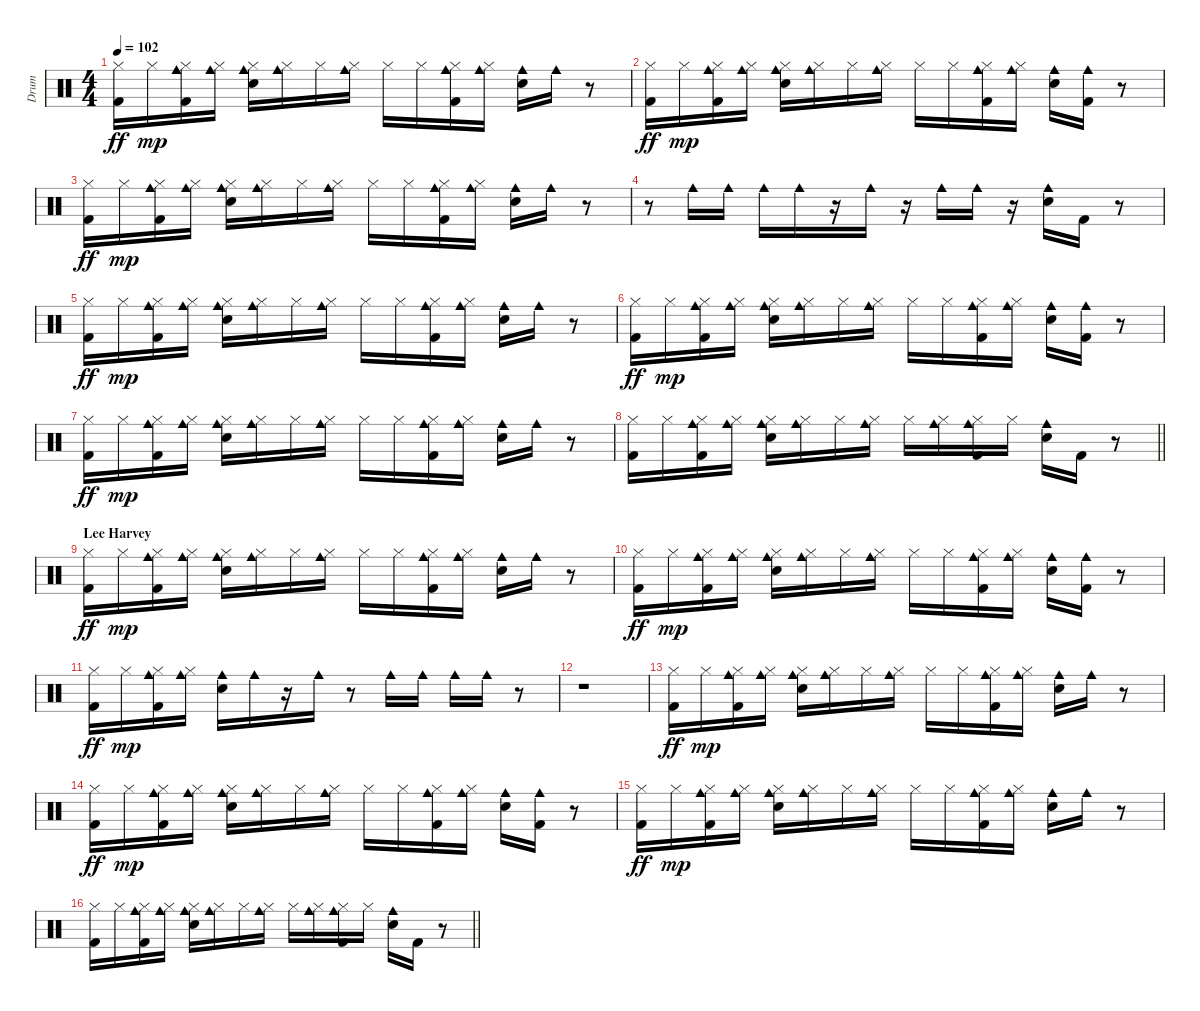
\track ("Drum" "Drum") {instrument percussion}
\staff {score}
\articulation defaults
\ts (4 4)
\tempo 102
\clef neutral
\ks c
("Hi-Hat (closed)" "Kick (hit) 2").16{dy ff volume 12} "Hi-Hat (closed)".16{dy mp} ("Hi-Hat (closed)" "Kick (hit) 2" "Cowbell medium (hit)").16 ("Hi-Hat (closed)" "Cowbell medium (hit)").16 ("Electric Snare (hit)" "Hi-Hat (closed)" "Cowbell medium (hit)").16 ("Hi-Hat (closed)" "Cowbell medium (hit)").16 "Hi-Hat (closed)".16 ("Hi-Hat (closed)" "Cowbell medium (hit)").16 "Hi-Hat (closed)".16 "Hi-Hat (closed)".16 ("Hi-Hat (closed)" "Kick (hit) 2" "Cowbell medium (hit)").16 ("Hi-Hat (closed)" "Cowbell medium (hit)").16 ("Electric Snare (hit)" "Cowbell medium (hit)").16 "Cowbell medium (hit)".16 r.8 |
("Hi-Hat (closed)" "Kick (hit) 2").16{dy ff volume 12} "Hi-Hat (closed)".16{dy mp} ("Hi-Hat (closed)" "Kick (hit) 2" "Cowbell medium (hit)").16 ("Hi-Hat (closed)" "Cowbell medium (hit)").16 ("Electric Snare (hit)" "Hi-Hat (closed)" "Cowbell medium (hit)").16 ("Hi-Hat (closed)" "Cowbell medium (hit)").16 "Hi-Hat (closed)".16 ("Hi-Hat (closed)" "Cowbell medium (hit)").16 "Hi-Hat (closed)".16 "Hi-Hat (closed)".16 ("Hi-Hat (closed)" "Kick (hit) 2" "Cowbell medium (hit)").16 ("Hi-Hat (closed)" "Cowbell medium (hit)").16 ("Electric Snare (hit)" "Cowbell medium (hit)").16 ("Cowbell medium (hit)" "Kick (hit) 2").16 r.8 |
("Hi-Hat (closed)" "Kick (hit) 2").16{dy ff volume 12} "Hi-Hat (closed)".16{dy mp} ("Hi-Hat (closed)" "Kick (hit) 2" "Cowbell medium (hit)").16 ("Hi-Hat (closed)" "Cowbell medium (hit)").16 ("Electric Snare (hit)" "Hi-Hat (closed)" "Cowbell medium (hit)").16 ("Hi-Hat (closed)" "Cowbell medium (hit)").16 "Hi-Hat (closed)".16 ("Hi-Hat (closed)" "Cowbell medium (hit)").16 "Hi-Hat (closed)".16 "Hi-Hat (closed)".16 ("Hi-Hat (closed)" "Kick (hit) 2" "Cowbell medium (hit)").16 ("Hi-Hat (closed)" "Cowbell medium (hit)").16 ("Electric Snare (hit)" "Cowbell medium (hit)").16 "Cowbell medium (hit)".16 r.8 |
r.8 "Cowbell medium (hit)".16{volume 12} "Cowbell medium (hit)".16 "Cowbell medium (hit)".16 "Cowbell medium (hit)".16 r.16 "Cowbell medium (hit)".16 r.16 "Cowbell medium (hit)".16 "Cowbell medium (hit)".16 r.16 ("Electric Snare (hit)" "Cowbell medium (hit)").16 "Kick (hit) 2".16 r.8 |
("Hi-Hat (closed)" "Kick (hit) 2").16{dy ff volume 12} "Hi-Hat (closed)".16{dy mp} ("Hi-Hat (closed)" "Kick (hit) 2" "Cowbell medium (hit)").16 ("Hi-Hat (closed)" "Cowbell medium (hit)").16 ("Electric Snare (hit)" "Hi-Hat (closed)" "Cowbell medium (hit)").16 ("Hi-Hat (closed)" "Cowbell medium (hit)").16 "Hi-Hat (closed)".16 ("Hi-Hat (closed)" "Cowbell medium (hit)").16 "Hi-Hat (closed)".16 "Hi-Hat (closed)".16 ("Hi-Hat (closed)" "Kick (hit) 2" "Cowbell medium (hit)").16 ("Hi-Hat (closed)" "Cowbell medium (hit)").16 ("Electric Snare (hit)" "Cowbell medium (hit)").16 "Cowbell medium (hit)".16 r.8 |
("Hi-Hat (closed)" "Kick (hit) 2").16{dy ff volume 12} "Hi-Hat (closed)".16{dy mp} ("Hi-Hat (closed)" "Kick (hit) 2" "Cowbell medium (hit)").16 ("Hi-Hat (closed)" "Cowbell medium (hit)").16 ("Electric Snare (hit)" "Hi-Hat (closed)" "Cowbell medium (hit)").16 ("Hi-Hat (closed)" "Cowbell medium (hit)").16 "Hi-Hat (closed)".16 ("Hi-Hat (closed)" "Cowbell medium (hit)").16 "Hi-Hat (closed)".16 "Hi-Hat (closed)".16 ("Hi-Hat (closed)" "Kick (hit) 2" "Cowbell medium (hit)").16 ("Hi-Hat (closed)" "Cowbell medium (hit)").16 ("Electric Snare (hit)" "Cowbell medium (hit)").16 ("Cowbell medium (hit)" "Kick (hit) 2").16 r.8 |
("Hi-Hat (closed)" "Kick (hit) 2").16{dy ff volume 12} "Hi-Hat (closed)".16{dy mp} ("Hi-Hat (closed)" "Kick (hit) 2" "Cowbell medium (hit)").16 ("Hi-Hat (closed)" "Cowbell medium (hit)").16 ("Electric Snare (hit)" "Hi-Hat (closed)" "Cowbell medium (hit)").16 ("Hi-Hat (closed)" "Cowbell medium (hit)").16 "Hi-Hat (closed)".16 ("Hi-Hat (closed)" "Cowbell medium (hit)").16 "Hi-Hat (closed)".16 "Hi-Hat (closed)".16 ("Hi-Hat (closed)" "Kick (hit) 2" "Cowbell medium (hit)").16 ("Hi-Hat (closed)" "Cowbell medium (hit)").16 ("Electric Snare (hit)" "Cowbell medium (hit)").16 "Cowbell medium (hit)".16 r.8 |
\barLineRight lightlight
("Kick (hit) 2" "Hi-Hat (closed)").16{volume 12} "Hi-Hat (closed)".16 ("Kick (hit) 2" "Hi-Hat (closed)" "Cowbell medium (hit)").16 ("Hi-Hat (closed)" "Cowbell medium (hit)").16 ("Electric Snare (hit)" "Hi-Hat (closed)" "Cowbell medium (hit)").16 ("Hi-Hat (closed)" "Cowbell medium (hit)").16 "Hi-Hat (closed)".16 ("Hi-Hat (closed)" "Cowbell medium (hit)").16 "Hi-Hat (closed)".16 ("Hi-Hat (closed)" "Cowbell medium (hit)").16 ("Hi-Hat (closed)" "Kick (hit) 2" "Cowbell medium (hit)").16 "Hi-Hat (closed)".16 ("Electric Snare (hit)" "Cowbell medium (hit)").16 "Kick (hit) 2".16 r.8 |
\section ("" "Lee Harvey")
("Hi-Hat (closed)" "Kick (hit) 2").16{dy ff volume 12} "Hi-Hat (closed)".16{dy mp} ("Hi-Hat (closed)" "Kick (hit) 2" "Cowbell medium (hit)").16 ("Hi-Hat (closed)" "Cowbell medium (hit)").16 ("Electric Snare (hit)" "Hi-Hat (closed)" "Cowbell medium (hit)").16 ("Hi-Hat (closed)" "Cowbell medium (hit)").16 "Hi-Hat (closed)".16 ("Hi-Hat (closed)" "Cowbell medium (hit)").16 "Hi-Hat (closed)".16 "Hi-Hat (closed)".16 ("Hi-Hat (closed)" "Kick (hit) 2" "Cowbell medium (hit)").16 ("Hi-Hat (closed)" "Cowbell medium (hit)").16 ("Electric Snare (hit)" "Cowbell medium (hit)").16 "Cowbell medium (hit)".16 r.8 |
("Hi-Hat (closed)" "Kick (hit) 2").16{dy ff volume 12} "Hi-Hat (closed)".16{dy mp} ("Hi-Hat (closed)" "Kick (hit) 2" "Cowbell medium (hit)").16 ("Hi-Hat (closed)" "Cowbell medium (hit)").16 ("Electric Snare (hit)" "Hi-Hat (closed)" "Cowbell medium (hit)").16 ("Hi-Hat (closed)" "Cowbell medium (hit)").16 "Hi-Hat (closed)".16 ("Hi-Hat (closed)" "Cowbell medium (hit)").16 "Hi-Hat (closed)".16 "Hi-Hat (closed)".16 ("Hi-Hat (closed)" "Kick (hit) 2" "Cowbell medium (hit)").16 ("Hi-Hat (closed)" "Cowbell medium (hit)").16 ("Electric Snare (hit)" "Cowbell medium (hit)").16 ("Cowbell medium (hit)" "Kick (hit) 2").16 r.8 |
("Hi-Hat (closed)" "Kick (hit) 2").16{dy ff volume 12} "Hi-Hat (closed)".16{dy mp} ("Hi-Hat (closed)" "Kick (hit) 2" "Cowbell medium (hit)").16 ("Hi-Hat (closed)" "Cowbell medium (hit)").16 ("Electric Snare (hit)" "Cowbell medium (hit)").16 "Cowbell medium (hit)".16 r.16 "Cowbell medium (hit)".16 r.8 "Cowbell medium (hit)".16 "Cowbell medium (hit)".16 "Cowbell medium (hit)".16 "Cowbell medium (hit)".16 r.8 |
r.1 |
("Hi-Hat (closed)" "Kick (hit) 2").16{dy ff volume 12} "Hi-Hat (closed)".16{dy mp} ("Hi-Hat (closed)" "Kick (hit) 2" "Cowbell medium (hit)").16 ("Hi-Hat (closed)" "Cowbell medium (hit)").16 ("Electric Snare (hit)" "Hi-Hat (closed)" "Cowbell medium (hit)").16 ("Hi-Hat (closed)" "Cowbell medium (hit)").16 "Hi-Hat (closed)".16 ("Hi-Hat (closed)" "Cowbell medium (hit)").16 "Hi-Hat (closed)".16 "Hi-Hat (closed)".16 ("Hi-Hat (closed)" "Kick (hit) 2" "Cowbell medium (hit)").16 ("Hi-Hat (closed)" "Cowbell medium (hit)").16 ("Electric Snare (hit)" "Cowbell medium (hit)").16 "Cowbell medium (hit)".16 r.8 |
("Hi-Hat (closed)" "Kick (hit) 2").16{dy ff volume 12} "Hi-Hat (closed)".16{dy mp} ("Hi-Hat (closed)" "Kick (hit) 2" "Cowbell medium (hit)").16 ("Hi-Hat (closed)" "Cowbell medium (hit)").16 ("Electric Snare (hit)" "Hi-Hat (closed)" "Cowbell medium (hit)").16 ("Hi-Hat (closed)" "Cowbell medium (hit)").16 "Hi-Hat (closed)".16 ("Hi-Hat (closed)" "Cowbell medium (hit)").16 "Hi-Hat (closed)".16 "Hi-Hat (closed)".16 ("Hi-Hat (closed)" "Kick (hit) 2" "Cowbell medium (hit)").16 ("Hi-Hat (closed)" "Cowbell medium (hit)").16 ("Electric Snare (hit)" "Cowbell medium (hit)").16 ("Cowbell medium (hit)" "Kick (hit) 2").16 r.8 |
("Hi-Hat (closed)" "Kick (hit) 2").16{dy ff volume 12} "Hi-Hat (closed)".16{dy mp} ("Hi-Hat (closed)" "Kick (hit) 2" "Cowbell medium (hit)").16 ("Hi-Hat (closed)" "Cowbell medium (hit)").16 ("Electric Snare (hit)" "Hi-Hat (closed)" "Cowbell medium (hit)").16 ("Hi-Hat (closed)" "Cowbell medium (hit)").16 "Hi-Hat (closed)".16 ("Hi-Hat (closed)" "Cowbell medium (hit)").16 "Hi-Hat (closed)".16 "Hi-Hat (closed)".16 ("Hi-Hat (closed)" "Kick (hit) 2" "Cowbell medium (hit)").16 ("Hi-Hat (closed)" "Cowbell medium (hit)").16 ("Electric Snare (hit)" "Cowbell medium (hit)").16 "Cowbell medium (hit)".16 r.8 |
\barLineRight lightlight
("Kick (hit) 2" "Hi-Hat (closed)").16{volume 12} "Hi-Hat (closed)".16 ("Kick (hit) 2" "Hi-Hat (closed)" "Cowbell medium (hit)").16 ("Hi-Hat (closed)" "Cowbell medium (hit)").16 ("Electric Snare (hit)" "Hi-Hat (closed)" "Cowbell medium (hit)").16 ("Hi-Hat (closed)" "Cowbell medium (hit)").16 "Hi-Hat (closed)".16 ("Hi-Hat (closed)" "Cowbell medium (hit)").16 "Hi-Hat (closed)".16 ("Hi-Hat (closed)" "Cowbell medium (hit)").16 ("Hi-Hat (closed)" "Kick (hit) 2" "Cowbell medium (hit)").16 "Hi-Hat (closed)".16 ("Electric Snare (hit)" "Cowbell medium (hit)").16 "Kick (hit) 2".16 r.8
